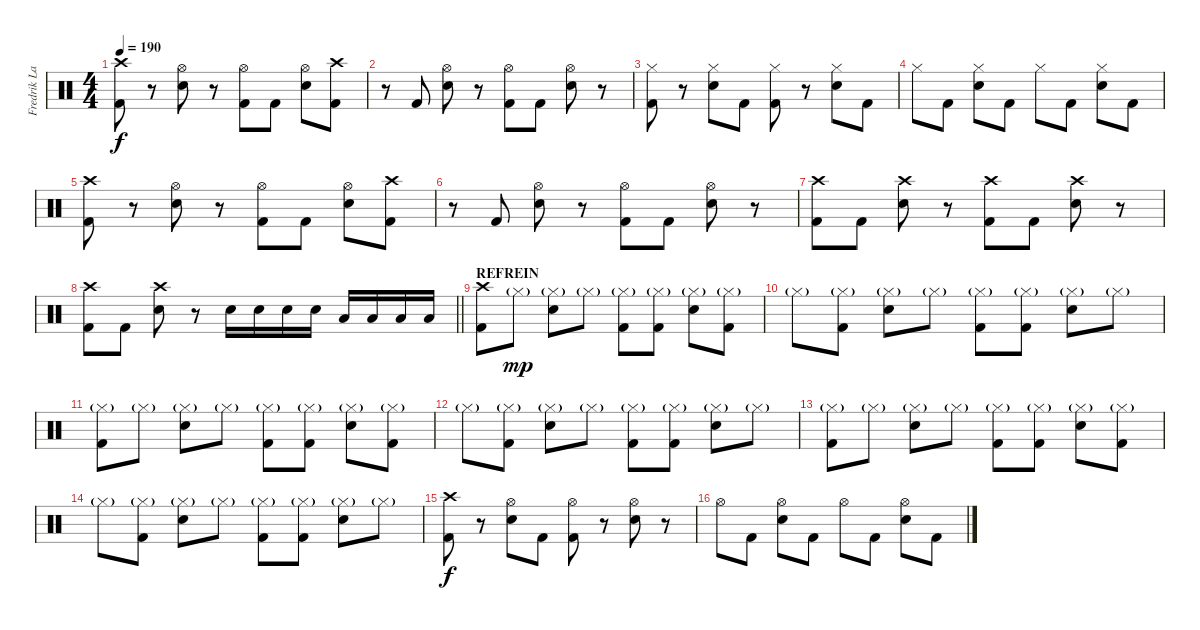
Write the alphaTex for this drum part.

\track ("Fredrik Larson" "Fredrik La") {instrument percussion}
\staff {score}
\articulation defaults
\ts (4 4)
\tempo 190
\clef neutral
\ks c
("Crash high (hit)" "Kick (hit) 2").8{dy f} r.8 ("Hi-Hat (open)" "Snare (hit) 2").8 r.8 ("Hi-Hat (open)" "Kick (hit) 2").8 "Kick (hit) 2".8 ("Hi-Hat (open)" "Snare (hit) 2").8 ("Crash high (hit)" "Kick (hit) 2").8 |
r.8 "Kick (hit) 2".8 ("Hi-Hat (open)" "Snare (hit) 2").8 r.8 ("Hi-Hat (open)" "Kick (hit) 2").8 "Kick (hit) 2".8 ("Hi-Hat (open)" "Snare (hit) 2").8 r.8 |
("Hi-Hat (closed)" "Kick (hit) 2").8 r.8 ("Hi-Hat (closed)" "Snare (hit) 2").8 "Kick (hit) 2".8 ("Hi-Hat (closed)" "Kick (hit) 2").8 r.8 ("Hi-Hat (closed)" "Snare (hit) 2").8 "Kick (hit) 2".8 |
"Hi-Hat (closed)".8 "Kick (hit) 2".8 ("Hi-Hat (closed)" "Snare (hit) 2").8 "Kick (hit) 2".8 "Hi-Hat (closed)".8 "Kick (hit) 2".8 ("Hi-Hat (closed)" "Snare (hit) 2").8 "Kick (hit) 2".8 |
("Crash high (hit)" "Kick (hit) 2").8 r.8 ("Hi-Hat (open)" "Snare (hit) 2").8 r.8 ("Hi-Hat (open)" "Kick (hit) 2").8 "Kick (hit) 2".8 ("Hi-Hat (open)" "Snare (hit) 2").8 ("Crash high (hit)" "Kick (hit) 2").8 |
r.8 "Kick (hit) 2".8 ("Hi-Hat (open)" "Snare (hit) 2").8 r.8 ("Hi-Hat (open)" "Kick (hit) 2").8 "Kick (hit) 2".8 ("Hi-Hat (open)" "Snare (hit) 2").8 r.8 |
("Crash high (hit)" "Kick (hit) 2").8 "Kick (hit) 2".8 ("Crash high (hit)" "Snare (hit) 2").8 r.8 ("Crash high (hit)" "Kick (hit) 2").8 "Kick (hit) 2".8 ("Crash high (hit)" "Snare (hit) 2").8 r.8 |
\barLineRight lightlight
("Crash high (hit)" "Kick (hit) 2").8 "Kick (hit) 2".8 ("Crash high (hit)" "Snare (hit) 2").8 r.8 "Snare (hit) 2".16 "Snare (hit) 2".16 "Snare (hit) 2".16 "Snare (hit) 2".16 "Low Tom (hit)".16 "Low Tom (hit)".16 "Low Floor Tom (hit)".16 "Low Floor Tom (hit)".16 |
\section ("" "REFREIN")
("Crash high (hit)" "Kick (hit) 2").8 "Hi-Hat (closed)"{g}.8{dy mp} ("Hi-Hat (closed)"{g} "Snare (hit) 2").8 "Hi-Hat (closed)"{g}.8 ("Hi-Hat (closed)"{g} "Kick (hit) 2").8 ("Hi-Hat (closed)"{g} "Kick (hit) 2").8 ("Hi-Hat (closed)"{g} "Snare (hit) 2").8 ("Hi-Hat (closed)"{g} "Kick (hit) 2").8 |
"Hi-Hat (closed)"{g}.8 ("Hi-Hat (closed)"{g} "Kick (hit) 2").8 ("Hi-Hat (closed)"{g} "Snare (hit) 2").8 "Hi-Hat (closed)"{g}.8 ("Hi-Hat (closed)"{g} "Kick (hit) 2").8 ("Hi-Hat (closed)"{g} "Kick (hit) 2").8 ("Hi-Hat (closed)"{g} "Snare (hit) 2").8 "Hi-Hat (closed)"{g}.8 |
("Hi-Hat (closed)"{g} "Kick (hit) 2").8 "Hi-Hat (closed)"{g}.8 ("Hi-Hat (closed)"{g} "Snare (hit) 2").8 "Hi-Hat (closed)"{g}.8 ("Hi-Hat (closed)"{g} "Kick (hit) 2").8 ("Hi-Hat (closed)"{g} "Kick (hit) 2").8 ("Hi-Hat (closed)"{g} "Snare (hit) 2").8 ("Hi-Hat (closed)"{g} "Kick (hit) 2").8 |
"Hi-Hat (closed)"{g}.8 ("Hi-Hat (closed)"{g} "Kick (hit) 2").8 ("Hi-Hat (closed)"{g} "Snare (hit) 2").8 "Hi-Hat (closed)"{g}.8 ("Hi-Hat (closed)"{g} "Kick (hit) 2").8 ("Hi-Hat (closed)"{g} "Kick (hit) 2").8 ("Hi-Hat (closed)"{g} "Snare (hit) 2").8 "Hi-Hat (closed)"{g}.8 |
("Hi-Hat (closed)"{g} "Kick (hit) 2").8 "Hi-Hat (closed)"{g}.8 ("Hi-Hat (closed)"{g} "Snare (hit) 2").8 "Hi-Hat (closed)"{g}.8 ("Hi-Hat (closed)"{g} "Kick (hit) 2").8 ("Hi-Hat (closed)"{g} "Kick (hit) 2").8 ("Hi-Hat (closed)"{g} "Snare (hit) 2").8 ("Hi-Hat (closed)"{g} "Kick (hit) 2").8 |
"Hi-Hat (closed)"{g}.8 ("Hi-Hat (closed)"{g} "Kick (hit) 2").8 ("Hi-Hat (closed)"{g} "Snare (hit) 2").8 "Hi-Hat (closed)"{g}.8 ("Hi-Hat (closed)"{g} "Kick (hit) 2").8 ("Hi-Hat (closed)"{g} "Kick (hit) 2").8 ("Hi-Hat (closed)"{g} "Snare (hit) 2").8 "Hi-Hat (closed)"{g}.8 |
("Crash high (hit)" "Kick (hit) 2").8{dy f} r.8 ("Hi-Hat (open)" "Snare (hit) 2").8 "Kick (hit) 2".8 ("Hi-Hat (open)" "Kick (hit) 2").8 r.8 ("Hi-Hat (open)" "Snare (hit) 2").8 r.8 |
"Hi-Hat (open)".8 "Kick (hit) 2".8 ("Hi-Hat (open)" "Snare (hit) 2").8 "Kick (hit) 2".8 "Hi-Hat (open)".8 "Kick (hit) 2".8 ("Hi-Hat (open)" "Snare (hit) 2").8 "Kick (hit) 2".8
